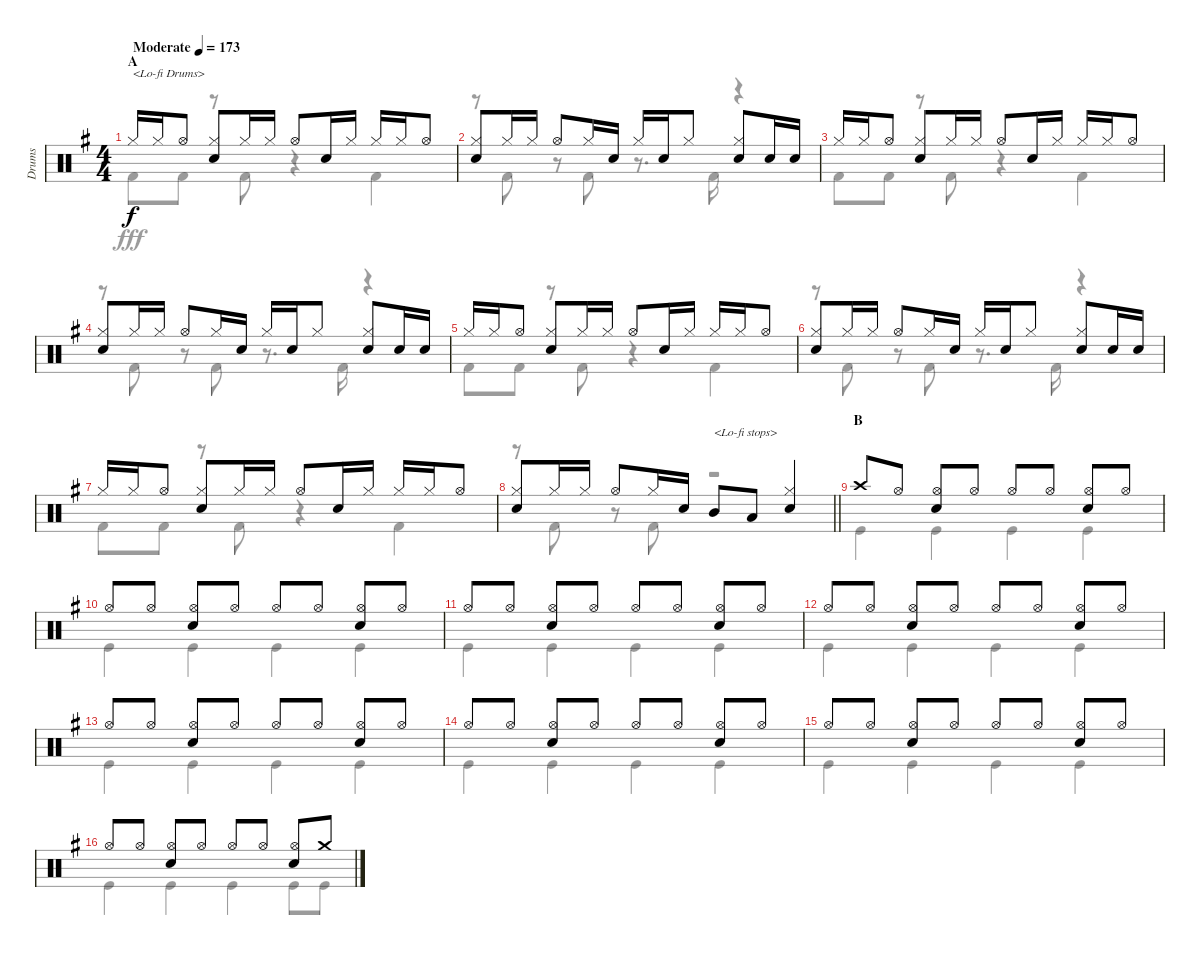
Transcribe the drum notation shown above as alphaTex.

\track ("Drums" "Drums") {instrument percussion}
\staff {score}
\articulation defaults
\voice
\ts (4 4)
\section ("" "A")
\tempo (173 "Moderate")
\clef neutral
\ks g "Hi-Hat (closed)".16{txt "<Lo-fi Drums>" dy f} "Hi-Hat (closed)".16 "Hi-Hat (open)".8
("Hi-Hat (closed)" "Snare (hit) 2").8 "Hi-Hat (closed)".16 "Hi-Hat (closed)".16 "Hi-Hat (open)".8 "Snare (hit) 2".16 "Hi-Hat (closed)".16 "Hi-Hat (closed)".16 "Hi-Hat (closed)".16 "Hi-Hat (open)".8 |
("Hi-Hat (closed)" "Snare (hit) 2").8 "Hi-Hat (closed)".16 "Hi-Hat (closed)".16 "Hi-Hat (open)".8 "Hi-Hat (closed)".16 "Snare (hit) 2".16 "Hi-Hat (closed)".16 "Snare (hit) 2".16 "Hi-Hat (closed)".8 ("Hi-Hat (closed)" "Snare (hit) 2").8 "Snare (hit) 2".16 "Snare (hit) 2".16 |
"Hi-Hat (closed)".16 "Hi-Hat (closed)".16 "Hi-Hat (open)".8 ("Hi-Hat (closed)" "Snare (hit) 2").8 "Hi-Hat (closed)".16 "Hi-Hat (closed)".16 "Hi-Hat (open)".8 "Snare (hit) 2".16 "Hi-Hat (closed)".16 "Hi-Hat (closed)".16 "Hi-Hat (closed)".16 "Hi-Hat (open)".8 |
("Hi-Hat (closed)" "Snare (hit) 2").8 "Hi-Hat (closed)".16 "Hi-Hat (closed)".16 "Hi-Hat (open)".8 "Hi-Hat (closed)".16 "Snare (hit) 2".16 "Hi-Hat (closed)".16 "Snare (hit) 2".16 "Hi-Hat (closed)".8 ("Hi-Hat (closed)" "Snare (hit) 2").8 "Snare (hit) 2".16 "Snare (hit) 2".16 |
"Hi-Hat (closed)".16 "Hi-Hat (closed)".16 "Hi-Hat (open)".8 ("Hi-Hat (closed)" "Snare (hit) 2").8 "Hi-Hat (closed)".16 "Hi-Hat (closed)".16 "Hi-Hat (open)".8 "Snare (hit) 2".16 "Hi-Hat (closed)".16 "Hi-Hat (closed)".16 "Hi-Hat (closed)".16 "Hi-Hat (open)".8 |
("Hi-Hat (closed)" "Snare (hit) 2").8 "Hi-Hat (closed)".16 "Hi-Hat (closed)".16 "Hi-Hat (open)".8 "Hi-Hat (closed)".16 "Snare (hit) 2".16 "Hi-Hat (closed)".16 "Snare (hit) 2".16 "Hi-Hat (closed)".8 ("Hi-Hat (closed)" "Snare (hit) 2").8 "Snare (hit) 2".16 "Snare (hit) 2".16 |
"Hi-Hat (closed)".16 "Hi-Hat (closed)".16 "Hi-Hat (open)".8 ("Hi-Hat (closed)" "Snare (hit) 2").8 "Hi-Hat (closed)".16 "Hi-Hat (closed)".16 "Hi-Hat (open)".8 "Snare (hit) 2".16 "Hi-Hat (closed)".16 "Hi-Hat (closed)".16 "Hi-Hat (closed)".16 "Hi-Hat (open)".8 |
\barLineRight lightlight
("Hi-Hat (closed)" "Snare (hit) 2").8 "Hi-Hat (closed)".16 "Hi-Hat (closed)".16 "Hi-Hat (open)".8 "Hi-Hat (closed)".16 "Snare (hit) 2".16 "Mid Tom (hit)".8{txt "<Lo-fi stops>"} "Low Tom (hit)".8 ("Hi-Hat (closed)" "Snare (hit) 2").4 |
\section ("" "B")
"Crash high (hit)".8 "Hi-Hat (open)".8 ("Hi-Hat (open)" "Snare (hit) 2").8 "Hi-Hat (open)".8 "Hi-Hat (open)".8 "Hi-Hat (open)".8 ("Hi-Hat (open)" "Snare (hit) 2").8 "Hi-Hat (open)".8 |
"Hi-Hat (open)".8 "Hi-Hat (open)".8 ("Hi-Hat (open)" "Snare (hit) 2").8 "Hi-Hat (open)".8 "Hi-Hat (open)".8 "Hi-Hat (open)".8 ("Hi-Hat (open)" "Snare (hit) 2").8 "Hi-Hat (open)".8 |
"Hi-Hat (open)".8 "Hi-Hat (open)".8 ("Hi-Hat (open)" "Snare (hit) 2").8 "Hi-Hat (open)".8 "Hi-Hat (open)".8 "Hi-Hat (open)".8 ("Hi-Hat (open)" "Snare (hit) 2").8 "Hi-Hat (open)".8 |
"Hi-Hat (open)".8 "Hi-Hat (open)".8 ("Hi-Hat (open)" "Snare (hit) 2").8 "Hi-Hat (open)".8 "Hi-Hat (open)".8 "Hi-Hat (open)".8 ("Hi-Hat (open)" "Snare (hit) 2").8 "Hi-Hat (open)".8 |
"Hi-Hat (open)".8 "Hi-Hat (open)".8 ("Hi-Hat (open)" "Snare (hit) 2").8 "Hi-Hat (open)".8 "Hi-Hat (open)".8 "Hi-Hat (open)".8 ("Hi-Hat (open)" "Snare (hit) 2").8 "Hi-Hat (open)".8 |
"Hi-Hat (open)".8 "Hi-Hat (open)".8 ("Hi-Hat (open)" "Snare (hit) 2").8 "Hi-Hat (open)".8 "Hi-Hat (open)".8 "Hi-Hat (open)".8 ("Hi-Hat (open)" "Snare (hit) 2").8 "Hi-Hat (open)".8 |
"Hi-Hat (open)".8 "Hi-Hat (open)".8 ("Hi-Hat (open)" "Snare (hit) 2").8 "Hi-Hat (open)".8 "Hi-Hat (open)".8 "Hi-Hat (open)".8 ("Hi-Hat (open)" "Snare (hit) 2").8 "Hi-Hat (open)".8 |
"Hi-Hat (open)".8 "Hi-Hat (open)".8 ("Hi-Hat (open)" "Snare (hit) 2").8 "Hi-Hat (open)".8 "Hi-Hat (open)".8 "Hi-Hat (open)".8 ("Hi-Hat (open)" "Snare (hit) 2").8 "Crash medium (hit)".8
\voice
\clef neutral
\ottava regular
\simile none
\ks g "Kick (hit) 2".8{dy fff} "Kick (hit) 2".8
r.8 "Kick (hit) 2".8 r.4 "Kick (hit) 2".4 |
r.8 "Kick (hit) 2".8 r.8 "Kick (hit) 2".8 r.8{d} "Kick (hit) 2".16 r.4 |
"Kick (hit) 2".8 "Kick (hit) 2".8 r.8 "Kick (hit) 2".8 r.4 "Kick (hit) 2".4 |
r.8 "Kick (hit) 2".8 r.8 "Kick (hit) 2".8 r.8{d} "Kick (hit) 2".16 r.4 |
"Kick (hit) 2".8 "Kick (hit) 2".8 r.8 "Kick (hit) 2".8 r.4 "Kick (hit) 2".4 |
r.8 "Kick (hit) 2".8 r.8 "Kick (hit) 2".8 r.8{d} "Kick (hit) 2".16 r.4 |
"Kick (hit) 2".8 "Kick (hit) 2".8 r.8 "Kick (hit) 2".8 r.4 "Kick (hit) 2".4 |
\barLineRight lightlight
r.8 "Kick (hit) 2".8 r.8 "Kick (hit) 2".8 r.2 |
"Kick (hit)".4 "Kick (hit)".4 "Kick (hit)".4 "Kick (hit)".4 |
"Kick (hit)".4 "Kick (hit)".4 "Kick (hit)".4 "Kick (hit)".4 |
"Kick (hit)".4 "Kick (hit)".4 "Kick (hit)".4 "Kick (hit)".4 |
"Kick (hit)".4 "Kick (hit)".4 "Kick (hit)".4 "Kick (hit)".4 |
"Kick (hit)".4 "Kick (hit)".4 "Kick (hit)".4 "Kick (hit)".4 |
"Kick (hit)".4 "Kick (hit)".4 "Kick (hit)".4 "Kick (hit)".4 |
"Kick (hit)".4 "Kick (hit)".4 "Kick (hit)".4 "Kick (hit)".4 |
"Kick (hit)".4 "Kick (hit)".4 "Kick (hit)".4 "Kick (hit)".8 "Kick (hit)".8
